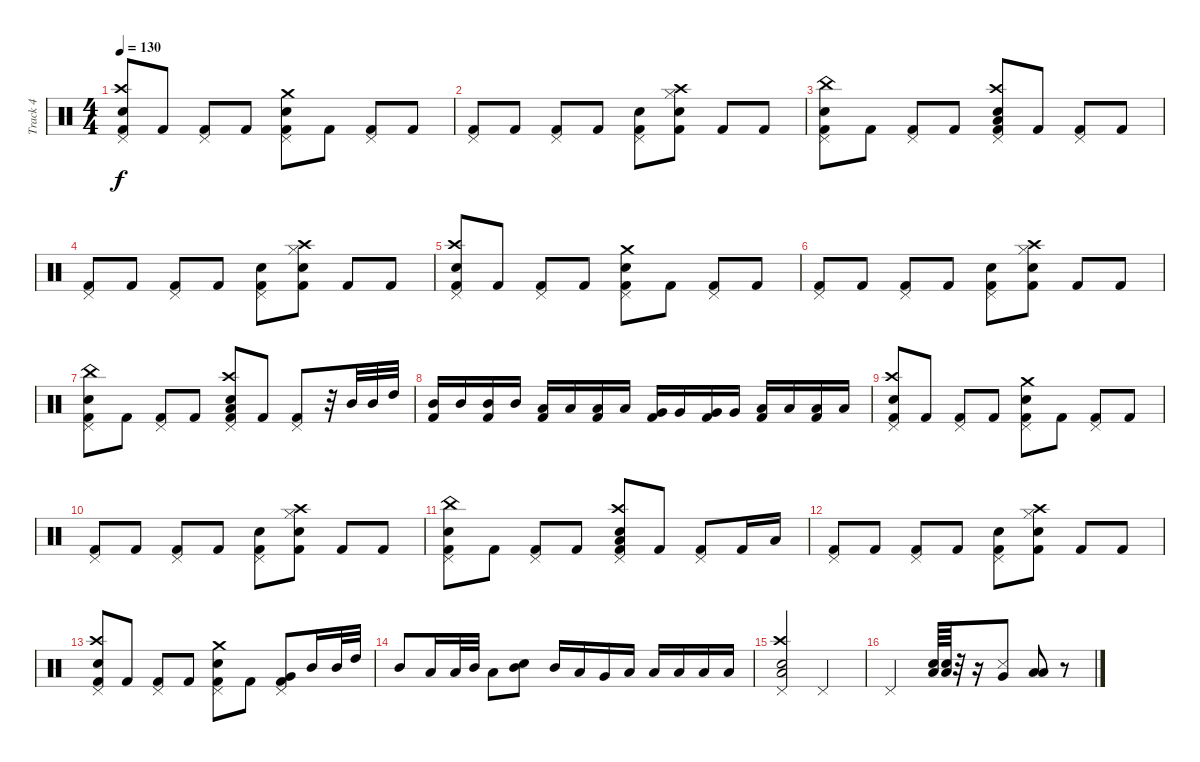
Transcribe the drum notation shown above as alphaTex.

\track ("Track 4" "Track 4") {instrument percussion}
\staff {score}
\articulation defaults
\ts (4 4)
\tempo 130
\clef neutral
\ks c
("Kick (hit) 2" "Pedal Hi-Hat (hit)" "Crash high (hit)" "Snare (hit) 2").8{dy f} "Kick (hit) 2".8 ("Pedal Hi-Hat (hit)" "Kick (hit) 2").8 "Kick (hit) 2".8 ("Crash medium (hit)" "Snare (hit) 2" "Kick (hit) 2" "Pedal Hi-Hat (hit)").8 "Kick (hit) 2".8 ("Pedal Hi-Hat (hit)" "Kick (hit) 2").8 "Kick (hit) 2".8 |
("Kick (hit) 2" "Pedal Hi-Hat (hit)").8 "Kick (hit) 2".8 ("Pedal Hi-Hat (hit)" "Kick (hit) 2").8 "Kick (hit) 2".8 ("Pedal Hi-Hat (hit)" "Kick (hit) 2" "Electric Snare (hit)").8 ("Kick (hit) 2" "Hi-Hat (closed)" "Snare (hit) 2" "Crash high (hit)").8 "Kick (hit) 2".8 "Kick (hit) 2".8 |
("Kick (hit) 2" "Pedal Hi-Hat (hit)" "China (hit)" "Snare (hit) 2").8 "Kick (hit) 2".8 ("Pedal Hi-Hat (hit)" "Kick (hit) 2").8 "Kick (hit) 2".8 ("Low Tom (hit)" "Snare (hit) 2" "Kick (hit) 2" "Pedal Hi-Hat (hit)" "Crash high (hit)").8 "Kick (hit) 2".8 ("Pedal Hi-Hat (hit)" "Kick (hit) 2").8 "Kick (hit) 2".8 |
("Kick (hit) 2" "Pedal Hi-Hat (hit)").8 "Kick (hit) 2".8 ("Pedal Hi-Hat (hit)" "Kick (hit) 2").8 "Kick (hit) 2".8 ("Pedal Hi-Hat (hit)" "Kick (hit) 2" "Electric Snare (hit)").8 ("Kick (hit) 2" "Hi-Hat (closed)" "Snare (hit) 2" "Crash high (hit)").8 "Kick (hit) 2".8 "Kick (hit) 2".8 |
("Kick (hit) 2" "Pedal Hi-Hat (hit)" "Crash high (hit)" "Snare (hit) 2").8 "Kick (hit) 2".8 ("Pedal Hi-Hat (hit)" "Kick (hit) 2").8 "Kick (hit) 2".8 ("Crash medium (hit)" "Snare (hit) 2" "Kick (hit) 2" "Pedal Hi-Hat (hit)").8 "Kick (hit) 2".8 ("Pedal Hi-Hat (hit)" "Kick (hit) 2").8 "Kick (hit) 2".8 |
("Kick (hit) 2" "Pedal Hi-Hat (hit)").8 "Kick (hit) 2".8 ("Pedal Hi-Hat (hit)" "Kick (hit) 2").8 "Kick (hit) 2".8 ("Pedal Hi-Hat (hit)" "Kick (hit) 2" "Electric Snare (hit)").8 ("Kick (hit) 2" "Hi-Hat (closed)" "Snare (hit) 2" "Crash high (hit)").8 "Kick (hit) 2".8 "Kick (hit) 2".8 |
("Kick (hit) 2" "Pedal Hi-Hat (hit)" "China (hit)" "Snare (hit) 2").8 "Kick (hit) 2".8 ("Pedal Hi-Hat (hit)" "Kick (hit) 2").8 "Kick (hit) 2".8 ("Low Tom (hit)" "Snare (hit) 2" "Kick (hit) 2" "Pedal Hi-Hat (hit)" "Crash high (hit)").8 "Kick (hit) 2".8 ("Pedal Hi-Hat (hit)" "Kick (hit) 2").8 r.32 "Mid Tom (hit)".32 "Mid Tom (hit)".32 "High Tom (hit)".32 |
("Mid Tom (hit)" "Kick (hit) 2").16 "Mid Tom (hit)".16 ("Mid Tom (hit)" "Kick (hit) 2").16 "Mid Tom (hit)".16 ("Low Tom (hit)" "Kick (hit) 2").16 "Low Tom (hit)".16 ("Low Tom (hit)" "Kick (hit) 2").16 "Low Tom (hit)".16 ("Very Low Tom (hit)" "Kick (hit) 2").16 "Very Low Tom (hit)".16 ("Very Low Tom (hit)" "Kick (hit) 2").16 "Very Low Tom (hit)".16 ("Low Floor Tom (hit)" "Kick (hit) 2").16 "Low Floor Tom (hit)".16 ("Low Floor Tom (hit)" "Kick (hit) 2").16 "Low Floor Tom (hit)".16 |
("Kick (hit) 2" "Pedal Hi-Hat (hit)" "Crash high (hit)" "Snare (hit) 2").8 "Kick (hit) 2".8 ("Pedal Hi-Hat (hit)" "Kick (hit) 2").8 "Kick (hit) 2".8 ("Crash medium (hit)" "Snare (hit) 2" "Kick (hit) 2" "Pedal Hi-Hat (hit)").8 "Kick (hit) 2".8 ("Pedal Hi-Hat (hit)" "Kick (hit) 2").8 "Kick (hit) 2".8 |
("Kick (hit) 2" "Pedal Hi-Hat (hit)").8 "Kick (hit) 2".8 ("Pedal Hi-Hat (hit)" "Kick (hit) 2").8 "Kick (hit) 2".8 ("Pedal Hi-Hat (hit)" "Kick (hit) 2" "Electric Snare (hit)").8 ("Kick (hit) 2" "Hi-Hat (closed)" "Snare (hit) 2" "Crash high (hit)").8 "Kick (hit) 2".8 "Kick (hit) 2".8 |
("Kick (hit) 2" "Pedal Hi-Hat (hit)" "China (hit)" "Snare (hit) 2").8 "Kick (hit) 2".8 ("Pedal Hi-Hat (hit)" "Kick (hit) 2").8 "Kick (hit) 2".8 ("Low Tom (hit)" "Snare (hit) 2" "Kick (hit) 2" "Pedal Hi-Hat (hit)" "Crash high (hit)").8 "Kick (hit) 2".8 ("Pedal Hi-Hat (hit)" "Kick (hit) 2").8 "Kick (hit) 2".16 "Low Floor Tom (hit)".16 |
("Kick (hit) 2" "Pedal Hi-Hat (hit)").8 "Kick (hit) 2".8 ("Pedal Hi-Hat (hit)" "Kick (hit) 2").8 "Kick (hit) 2".8 ("Pedal Hi-Hat (hit)" "Kick (hit) 2" "Electric Snare (hit)").8 ("Kick (hit) 2" "Hi-Hat (closed)" "Snare (hit) 2" "Crash high (hit)").8 "Kick (hit) 2".8 "Kick (hit) 2".8 |
("Kick (hit) 2" "Pedal Hi-Hat (hit)" "Crash high (hit)" "Snare (hit) 2").8 "Kick (hit) 2".8 ("Pedal Hi-Hat (hit)" "Kick (hit) 2").8 "Kick (hit) 2".8 ("Crash medium (hit)" "Snare (hit) 2" "Kick (hit) 2" "Pedal Hi-Hat (hit)").8 "Kick (hit) 2".8 ("Very Low Tom (hit)" "Kick (hit) 2" "Pedal Hi-Hat (hit)").8 "Mid Tom (hit)".16 "Mid Tom (hit)".32 "High Tom (hit)".32 |
"Mid Tom (hit)".8 "Low Tom (hit)".16 "Low Tom (hit)".32 "Mid Tom (hit)".32 "Low Tom (hit)".8 ("Mid Tom (hit)" "Electric Snare (hit)").8 "Mid Tom (hit)".16 "Low Tom (hit)".16 "Very Low Tom (hit)".16 "Low Floor Tom (hit)".16 "Low Floor Tom (hit)".16 "Low Floor Tom (hit)".16 "Low Floor Tom (hit)".16 "Low Floor Tom (hit)".16 |
("Low Tom (hit)" "Crash high (hit)" "Pedal Hi-Hat (hit)" "Electric Snare (hit)").2 "Pedal Hi-Hat (hit)".2 |
"Pedal Hi-Hat (hit)".2 ("Low Tom (hit)" "Electric Snare (hit)").64 ("Low Tom (hit)" "Electric Snare (hit)").64 r.32 r.16 ("Very Low Tom (hit)" "Snare (side stick) 3").8 ("Low Floor Tom (hit)" "Low Tom (hit)").8 r.8
